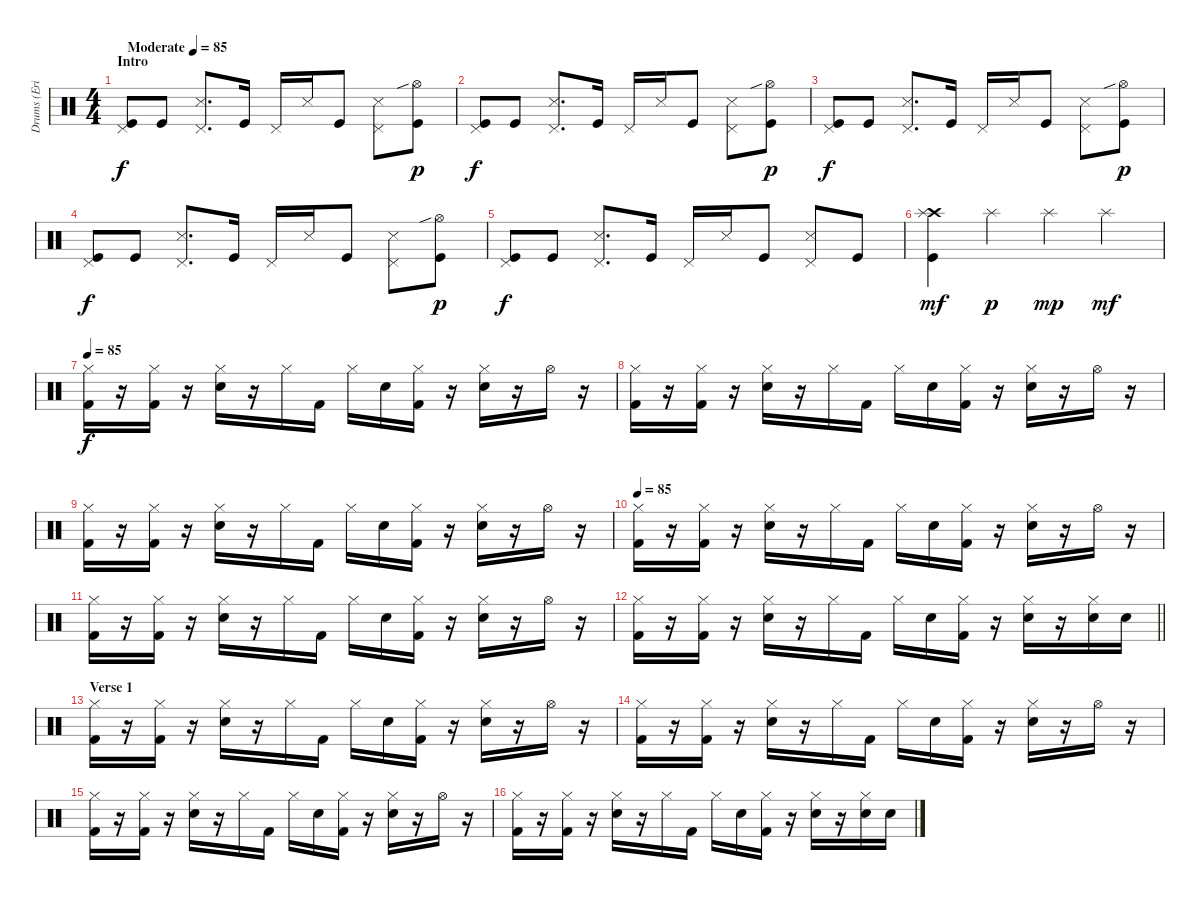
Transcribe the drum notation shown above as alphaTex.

\track ("Drums (Eric Kretz)" "Drums (Eri") {instrument percussion}
\staff {score}
\articulation defaults
\ts (4 4)
\section ("" "Intro")
\tempo (85 "Moderate")
\clef neutral
\ks c
("Kick (hit)" "Pedal Hi-Hat (hit)").8{dy f} "Kick (hit)".8 ("Snare (side stick) 3" "Pedal Hi-Hat (hit)").8{d} "Kick (hit)".16 "Pedal Hi-Hat (hit)".16 "Snare (side stick) 3".16 "Kick (hit)".8 ("Snare (side stick) 3" "Pedal Hi-Hat (hit)").8 ("Kick (hit)" "Hi-Hat (open)"{sib}).8{dy p} |
("Kick (hit)" "Pedal Hi-Hat (hit)").8{dy f} "Kick (hit)".8 ("Snare (side stick) 3" "Pedal Hi-Hat (hit)").8{d} "Kick (hit)".16 "Pedal Hi-Hat (hit)".16 "Snare (side stick) 3".16 "Kick (hit)".8 ("Snare (side stick) 3" "Pedal Hi-Hat (hit)").8 ("Kick (hit)" "Hi-Hat (open)"{sib}).8{dy p} |
("Kick (hit)" "Pedal Hi-Hat (hit)").8{dy f} "Kick (hit)".8 ("Snare (side stick) 3" "Pedal Hi-Hat (hit)").8{d} "Kick (hit)".16 "Pedal Hi-Hat (hit)".16 "Snare (side stick) 3".16 "Kick (hit)".8 ("Snare (side stick) 3" "Pedal Hi-Hat (hit)").8 ("Kick (hit)" "Hi-Hat (open)"{sib}).8{dy p} |
("Kick (hit)" "Pedal Hi-Hat (hit)").8{dy f} "Kick (hit)".8 ("Snare (side stick) 3" "Pedal Hi-Hat (hit)").8{d} "Kick (hit)".16 "Pedal Hi-Hat (hit)".16 "Snare (side stick) 3".16 "Kick (hit)".8 ("Snare (side stick) 3" "Pedal Hi-Hat (hit)").8 ("Kick (hit)" "Hi-Hat (open)"{sib}).8{dy p} |
("Kick (hit)" "Pedal Hi-Hat (hit)").8{dy f} "Kick (hit)".8 ("Snare (side stick) 3" "Pedal Hi-Hat (hit)").8{d} "Kick (hit)".16 "Pedal Hi-Hat (hit)".16 "Snare (side stick) 3".16 "Kick (hit)".8 ("Snare (side stick) 3" "Pedal Hi-Hat (hit)").8 "Kick (hit)".8 |
("Kick (hit)" "Crash high (hit)" "Splash (hit)").4{dy mf} "Splash (hit)".4{dy p} "Splash (hit)".4{dy mp} "Splash (hit)".4{dy mf} |
\tempo 85
("Hi-Hat (closed)" "Kick (hit) 2").16{dy f volume 16} r.16 ("Hi-Hat (closed)" "Kick (hit) 2").16 r.16 ("Hi-Hat (closed)" "Electric Snare (hit)").16 r.16 "Hi-Hat (closed)".16 "Kick (hit) 2".16 "Hi-Hat (closed)".16 "Electric Snare (hit)".16 ("Hi-Hat (closed)" "Kick (hit) 2").16 r.16 ("Hi-Hat (closed)" "Electric Snare (hit)").16 r.16 "Hi-Hat (open)".16 r.16 |
("Hi-Hat (closed)" "Kick (hit) 2").16 r.16 ("Hi-Hat (closed)" "Kick (hit) 2").16 r.16 ("Hi-Hat (closed)" "Electric Snare (hit)").16 r.16 "Hi-Hat (closed)".16 "Kick (hit) 2".16 "Hi-Hat (closed)".16 "Electric Snare (hit)".16 ("Hi-Hat (closed)" "Kick (hit) 2").16 r.16 ("Hi-Hat (closed)" "Electric Snare (hit)").16 r.16 "Hi-Hat (open)".16 r.16 |
("Hi-Hat (closed)" "Kick (hit) 2").16 r.16 ("Hi-Hat (closed)" "Kick (hit) 2").16 r.16 ("Hi-Hat (closed)" "Electric Snare (hit)").16 r.16 "Hi-Hat (closed)".16 "Kick (hit) 2".16 "Hi-Hat (closed)".16 "Electric Snare (hit)".16 ("Hi-Hat (closed)" "Kick (hit) 2").16 r.16 ("Hi-Hat (closed)" "Electric Snare (hit)").16 r.16 "Hi-Hat (open)".16 r.16 |
\tempo 85
("Hi-Hat (closed)" "Kick (hit) 2").16{volume 16} r.16 ("Hi-Hat (closed)" "Kick (hit) 2").16 r.16 ("Hi-Hat (closed)" "Electric Snare (hit)").16 r.16 "Hi-Hat (closed)".16 "Kick (hit) 2".16 "Hi-Hat (closed)".16 "Electric Snare (hit)".16 ("Hi-Hat (closed)" "Kick (hit) 2").16 r.16 ("Hi-Hat (closed)" "Electric Snare (hit)").16 r.16 "Hi-Hat (open)".16 r.16 |
("Hi-Hat (closed)" "Kick (hit) 2").16 r.16 ("Hi-Hat (closed)" "Kick (hit) 2").16 r.16 ("Hi-Hat (closed)" "Electric Snare (hit)").16 r.16 "Hi-Hat (closed)".16 "Kick (hit) 2".16 "Hi-Hat (closed)".16 "Electric Snare (hit)".16 ("Hi-Hat (closed)" "Kick (hit) 2").16 r.16 ("Hi-Hat (closed)" "Electric Snare (hit)").16 r.16 "Hi-Hat (open)".16 r.16 |
\barLineRight lightlight
("Hi-Hat (closed)" "Kick (hit) 2").16 r.16 ("Hi-Hat (closed)" "Kick (hit) 2").16 r.16 ("Hi-Hat (closed)" "Electric Snare (hit)").16 r.16 "Hi-Hat (closed)".16 "Kick (hit) 2".16 "Hi-Hat (closed)".16 "Electric Snare (hit)".16 ("Hi-Hat (closed)" "Kick (hit) 2").16 r.16 ("Hi-Hat (closed)" "Electric Snare (hit)").16 r.16 ("Hi-Hat (closed)" "Electric Snare (hit)").16 "Electric Snare (hit)".16 |
\section ("" "Verse 1")
("Hi-Hat (closed)" "Kick (hit) 2").16 r.16 ("Hi-Hat (closed)" "Kick (hit) 2").16 r.16 ("Hi-Hat (closed)" "Electric Snare (hit)").16 r.16 "Hi-Hat (closed)".16 "Kick (hit) 2".16 "Hi-Hat (closed)".16 "Electric Snare (hit)".16 ("Hi-Hat (closed)" "Kick (hit) 2").16 r.16 ("Hi-Hat (closed)" "Electric Snare (hit)").16 r.16 "Hi-Hat (open)".16 r.16 |
("Hi-Hat (closed)" "Kick (hit) 2").16 r.16 ("Hi-Hat (closed)" "Kick (hit) 2").16 r.16 ("Hi-Hat (closed)" "Electric Snare (hit)").16 r.16 "Hi-Hat (closed)".16 "Kick (hit) 2".16 "Hi-Hat (closed)".16 "Electric Snare (hit)".16 ("Hi-Hat (closed)" "Kick (hit) 2").16 r.16 ("Hi-Hat (closed)" "Electric Snare (hit)").16 r.16 "Hi-Hat (open)".16 r.16 |
("Hi-Hat (closed)" "Kick (hit) 2").16 r.16 ("Hi-Hat (closed)" "Kick (hit) 2").16 r.16 ("Hi-Hat (closed)" "Electric Snare (hit)").16 r.16 "Hi-Hat (closed)".16 "Kick (hit) 2".16 "Hi-Hat (closed)".16 "Electric Snare (hit)".16 ("Hi-Hat (closed)" "Kick (hit) 2").16 r.16 ("Hi-Hat (closed)" "Electric Snare (hit)").16 r.16 "Hi-Hat (open)".16 r.16 |
("Hi-Hat (closed)" "Kick (hit) 2").16 r.16 ("Hi-Hat (closed)" "Kick (hit) 2").16 r.16 ("Hi-Hat (closed)" "Electric Snare (hit)").16 r.16 "Hi-Hat (closed)".16 "Kick (hit) 2".16 "Hi-Hat (closed)".16 "Electric Snare (hit)".16 ("Hi-Hat (closed)" "Kick (hit) 2").16 r.16 ("Hi-Hat (closed)" "Electric Snare (hit)").16 r.16 ("Hi-Hat (closed)" "Electric Snare (hit)").16 "Electric Snare (hit)".16
